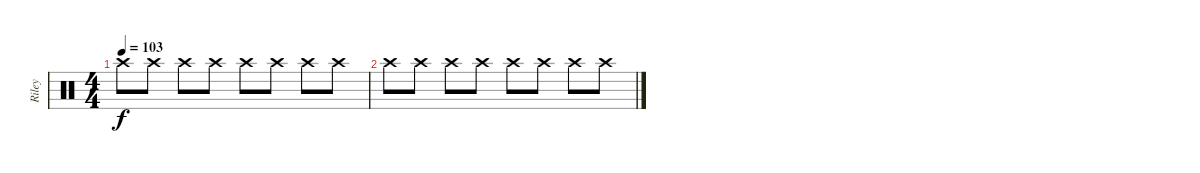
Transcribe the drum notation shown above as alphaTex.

\track ("Riley" "Riley") {instrument percussion}
\staff {score}
\articulation defaults
\ts (4 4)
\tempo 103
\clef neutral
\ks c "Crash high (hit)".8{dy f} "Crash high (hit)".8 "Crash high (hit)".8 "Crash high (hit)".8 "Crash high (hit)".8 "Crash high (hit)".8 "Crash high (hit)".8 "Crash high (hit)".8
|
"Crash high (hit)".8 "Crash high (hit)".8 "Crash high (hit)".8 "Crash high (hit)".8 "Crash high (hit)".8 "Crash high (hit)".8 "Crash high (hit)".8 "Crash high (hit)".8
